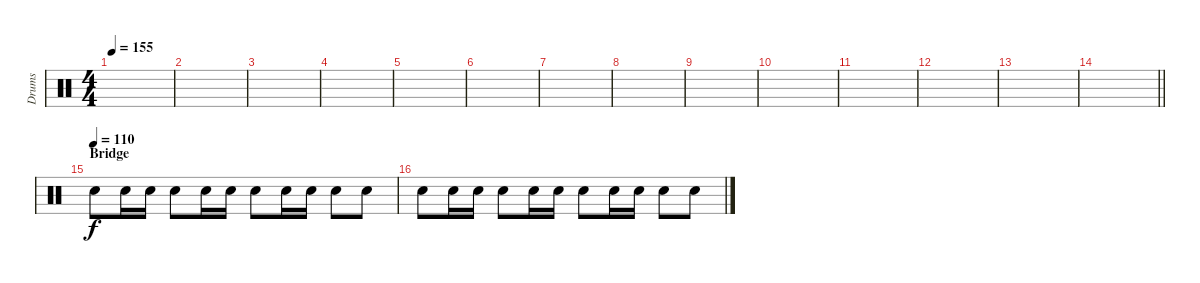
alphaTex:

\track ("Drums" "Drums") {instrument percussion}
\staff {score}
\articulation defaults
\ts (4 4)
\tempo 155
\clef neutral
\ks c
|
|
|
|
|
|
|
|
|
|
|
|
|
\barLineRight lightlight
|
\section ("" "Bridge")
\tempo (110)
"Electric Snare (hit)".8 "Electric Snare (hit)".16 "Electric Snare (hit)".16 "Electric Snare (hit)".8 "Electric Snare (hit)".16 "Electric Snare (hit)".16 "Electric Snare (hit)".8 "Electric Snare (hit)".16 "Electric Snare (hit)".16 "Electric Snare (hit)".8 "Electric Snare (hit)".8 |
"Electric Snare (hit)".8 "Electric Snare (hit)".16 "Electric Snare (hit)".16 "Electric Snare (hit)".8 "Electric Snare (hit)".16 "Electric Snare (hit)".16 "Electric Snare (hit)".8 "Electric Snare (hit)".16 "Electric Snare (hit)".16 "Electric Snare (hit)".8 "Electric Snare (hit)".8
